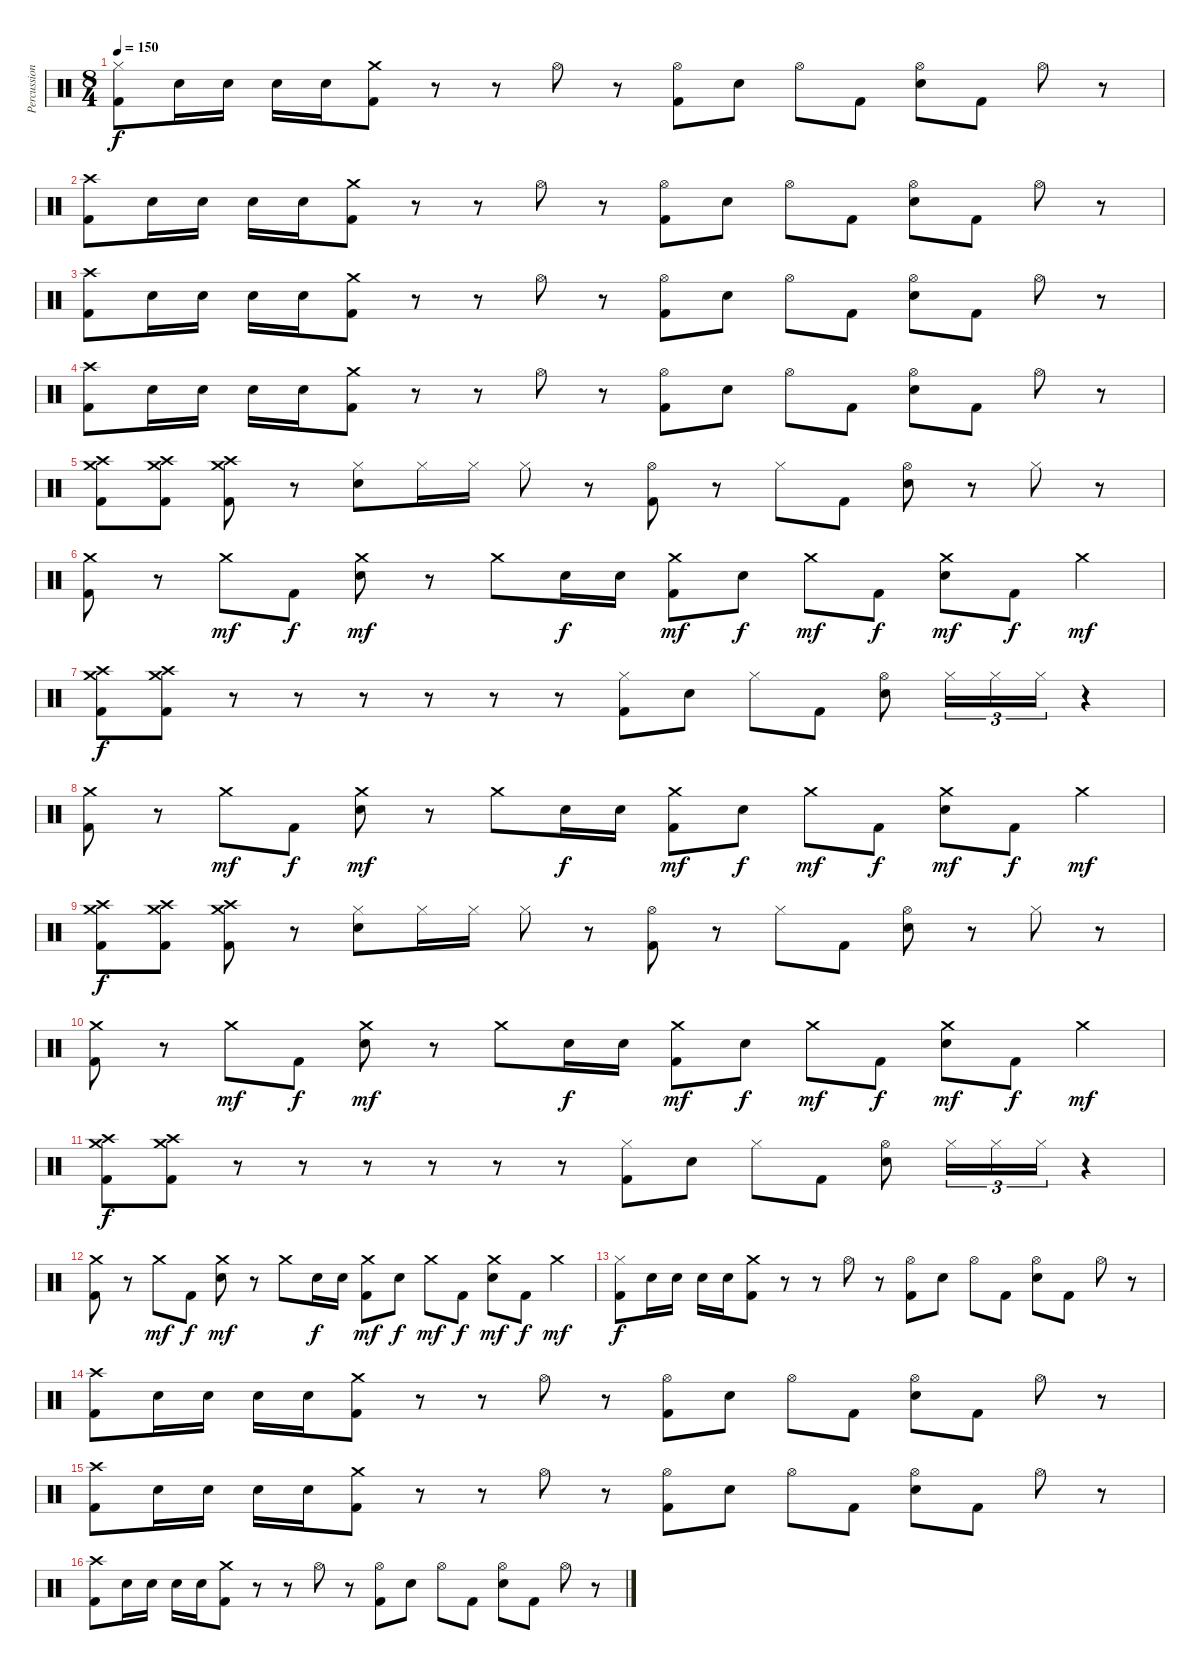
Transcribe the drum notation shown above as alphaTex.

\track ("Percussion" "Percussion") {instrument percussion}
\staff {score}
\articulation defaults
\ts (8 4)
\tempo 150
\clef neutral
\ks c
("Hi-Hat (closed)" "Kick (hit) 2").8{dy f} "Electric Snare (hit)".16 "Electric Snare (hit)".16 "Electric Snare (hit)".16 "Electric Snare (hit)".16 ("Crash medium (hit)" "Kick (hit) 2").8 r.8 r.8 "Hi-Hat (open)".8 r.8 ("Hi-Hat (open)" "Kick (hit) 2").8 "Electric Snare (hit)".8 "Hi-Hat (open)".8 "Kick (hit) 2".8 ("Electric Snare (hit)" "Hi-Hat (open)").8 "Kick (hit) 2".8 "Hi-Hat (open)".8 r.8 |
("Crash high (hit)" "Kick (hit) 2").8 "Electric Snare (hit)".16 "Electric Snare (hit)".16 "Electric Snare (hit)".16 "Electric Snare (hit)".16 ("Crash medium (hit)" "Kick (hit) 2").8 r.8 r.8 "Hi-Hat (open)".8 r.8 ("Hi-Hat (open)" "Kick (hit) 2").8 "Electric Snare (hit)".8 "Hi-Hat (open)".8 "Kick (hit) 2".8 ("Electric Snare (hit)" "Hi-Hat (open)").8 "Kick (hit) 2".8 "Hi-Hat (open)".8 r.8 |
("Crash high (hit)" "Kick (hit) 2").8 "Electric Snare (hit)".16 "Electric Snare (hit)".16 "Electric Snare (hit)".16 "Electric Snare (hit)".16 ("Crash medium (hit)" "Kick (hit) 2").8 r.8 r.8 "Hi-Hat (open)".8 r.8 ("Hi-Hat (open)" "Kick (hit) 2").8 "Electric Snare (hit)".8 "Hi-Hat (open)".8 "Kick (hit) 2".8 ("Electric Snare (hit)" "Hi-Hat (open)").8 "Kick (hit) 2".8 "Hi-Hat (open)".8 r.8 |
("Crash high (hit)" "Kick (hit) 2").8 "Electric Snare (hit)".16 "Electric Snare (hit)".16 "Electric Snare (hit)".16 "Electric Snare (hit)".16 ("Crash medium (hit)" "Kick (hit) 2").8 r.8 r.8 "Hi-Hat (open)".8 r.8 ("Hi-Hat (open)" "Kick (hit) 2").8 "Electric Snare (hit)".8 "Hi-Hat (open)".8 "Kick (hit) 2".8 ("Electric Snare (hit)" "Hi-Hat (open)").8 "Kick (hit) 2".8 "Hi-Hat (open)".8 r.8 |
("Crash high (hit)" "Crash medium (hit)" "Kick (hit) 2").8 ("Crash high (hit)" "Crash medium (hit)" "Kick (hit) 2").8 ("Crash high (hit)" "Crash medium (hit)" "Kick (hit) 2").8 r.8 ("Electric Snare (hit)" "Hi-Hat (closed)").8 "Hi-Hat (closed)".16 "Hi-Hat (closed)".16 "Hi-Hat (closed)".8 r.8 ("Hi-Hat (open)" "Kick (hit) 2").8 r.8 "Hi-Hat (closed)".8 "Kick (hit) 2".8 ("Electric Snare (hit)" "Hi-Hat (open)").8 r.8 "Hi-Hat (closed)".8 r.8 |
("Crash medium (hit)" "Kick (hit) 2").8 r.8 "Crash medium (hit)".8{dy mf} "Kick (hit) 2".8{dy f} ("Electric Snare (hit)" "Crash medium (hit)").8{dy mf} r.8 "Crash medium (hit)".8 "Electric Snare (hit)".16{dy f} "Electric Snare (hit)".16 ("Crash medium (hit)" "Kick (hit) 2").8{dy mf} "Electric Snare (hit)".8{dy f} "Crash medium (hit)".8{dy mf} "Kick (hit) 2".8{dy f} ("Electric Snare (hit)" "Crash medium (hit)").8{dy mf} "Kick (hit) 2".8{dy f} "Crash medium (hit)".4{dy mf} |
("Crash high (hit)" "Crash medium (hit)" "Kick (hit) 2").8{dy f} ("Crash high (hit)" "Crash medium (hit)" "Kick (hit) 2").8 r.8 r.8 r.8 r.8 r.8 r.8 ("Hi-Hat (closed)" "Kick (hit) 2").8 "Electric Snare (hit)".8 "Hi-Hat (closed)".8 "Kick (hit) 2".8 ("Electric Snare (hit)" "Hi-Hat (open)").8 "Hi-Hat (closed)".16{tu (3 2)} "Hi-Hat (closed)".16{tu (3 2)} "Hi-Hat (closed)".16{tu (3 2)} r.4 |
("Crash medium (hit)" "Kick (hit) 2").8 r.8 "Crash medium (hit)".8{dy mf} "Kick (hit) 2".8{dy f} ("Electric Snare (hit)" "Crash medium (hit)").8{dy mf} r.8 "Crash medium (hit)".8 "Electric Snare (hit)".16{dy f} "Electric Snare (hit)".16 ("Crash medium (hit)" "Kick (hit) 2").8{dy mf} "Electric Snare (hit)".8{dy f} "Crash medium (hit)".8{dy mf} "Kick (hit) 2".8{dy f} ("Electric Snare (hit)" "Crash medium (hit)").8{dy mf} "Kick (hit) 2".8{dy f} "Crash medium (hit)".4{dy mf} |
("Crash high (hit)" "Crash medium (hit)" "Kick (hit) 2").8{dy f} ("Crash high (hit)" "Crash medium (hit)" "Kick (hit) 2").8 ("Crash high (hit)" "Crash medium (hit)" "Kick (hit) 2").8 r.8 ("Electric Snare (hit)" "Hi-Hat (closed)").8 "Hi-Hat (closed)".16 "Hi-Hat (closed)".16 "Hi-Hat (closed)".8 r.8 ("Hi-Hat (open)" "Kick (hit) 2").8 r.8 "Hi-Hat (closed)".8 "Kick (hit) 2".8 ("Electric Snare (hit)" "Hi-Hat (open)").8 r.8 "Hi-Hat (closed)".8 r.8 |
("Crash medium (hit)" "Kick (hit) 2").8 r.8 "Crash medium (hit)".8{dy mf} "Kick (hit) 2".8{dy f} ("Electric Snare (hit)" "Crash medium (hit)").8{dy mf} r.8 "Crash medium (hit)".8 "Electric Snare (hit)".16{dy f} "Electric Snare (hit)".16 ("Crash medium (hit)" "Kick (hit) 2").8{dy mf} "Electric Snare (hit)".8{dy f} "Crash medium (hit)".8{dy mf} "Kick (hit) 2".8{dy f} ("Electric Snare (hit)" "Crash medium (hit)").8{dy mf} "Kick (hit) 2".8{dy f} "Crash medium (hit)".4{dy mf} |
("Crash high (hit)" "Crash medium (hit)" "Kick (hit) 2").8{dy f} ("Crash high (hit)" "Crash medium (hit)" "Kick (hit) 2").8 r.8 r.8 r.8 r.8 r.8 r.8 ("Hi-Hat (closed)" "Kick (hit) 2").8 "Electric Snare (hit)".8 "Hi-Hat (closed)".8 "Kick (hit) 2".8 ("Electric Snare (hit)" "Hi-Hat (open)").8 "Hi-Hat (closed)".16{tu (3 2)} "Hi-Hat (closed)".16{tu (3 2)} "Hi-Hat (closed)".16{tu (3 2)} r.4 |
("Crash medium (hit)" "Kick (hit) 2").8 r.8 "Crash medium (hit)".8{dy mf} "Kick (hit) 2".8{dy f} ("Electric Snare (hit)" "Crash medium (hit)").8{dy mf} r.8 "Crash medium (hit)".8 "Electric Snare (hit)".16{dy f} "Electric Snare (hit)".16 ("Crash medium (hit)" "Kick (hit) 2").8{dy mf} "Electric Snare (hit)".8{dy f} "Crash medium (hit)".8{dy mf} "Kick (hit) 2".8{dy f} ("Electric Snare (hit)" "Crash medium (hit)").8{dy mf} "Kick (hit) 2".8{dy f} "Crash medium (hit)".4{dy mf} |
("Hi-Hat (closed)" "Kick (hit) 2").8{dy f} "Electric Snare (hit)".16 "Electric Snare (hit)".16 "Electric Snare (hit)".16 "Electric Snare (hit)".16 ("Crash medium (hit)" "Kick (hit) 2").8 r.8 r.8 "Hi-Hat (open)".8 r.8 ("Hi-Hat (open)" "Kick (hit) 2").8 "Electric Snare (hit)".8 "Hi-Hat (open)".8 "Kick (hit) 2".8 ("Electric Snare (hit)" "Hi-Hat (open)").8 "Kick (hit) 2".8 "Hi-Hat (open)".8 r.8 |
("Crash high (hit)" "Kick (hit) 2").8 "Electric Snare (hit)".16 "Electric Snare (hit)".16 "Electric Snare (hit)".16 "Electric Snare (hit)".16 ("Crash medium (hit)" "Kick (hit) 2").8 r.8 r.8 "Hi-Hat (open)".8 r.8 ("Hi-Hat (open)" "Kick (hit) 2").8 "Electric Snare (hit)".8 "Hi-Hat (open)".8 "Kick (hit) 2".8 ("Electric Snare (hit)" "Hi-Hat (open)").8 "Kick (hit) 2".8 "Hi-Hat (open)".8 r.8 |
("Crash high (hit)" "Kick (hit) 2").8 "Electric Snare (hit)".16 "Electric Snare (hit)".16 "Electric Snare (hit)".16 "Electric Snare (hit)".16 ("Crash medium (hit)" "Kick (hit) 2").8 r.8 r.8 "Hi-Hat (open)".8 r.8 ("Hi-Hat (open)" "Kick (hit) 2").8 "Electric Snare (hit)".8 "Hi-Hat (open)".8 "Kick (hit) 2".8 ("Electric Snare (hit)" "Hi-Hat (open)").8 "Kick (hit) 2".8 "Hi-Hat (open)".8 r.8 |
("Crash high (hit)" "Kick (hit) 2").8 "Electric Snare (hit)".16 "Electric Snare (hit)".16 "Electric Snare (hit)".16 "Electric Snare (hit)".16 ("Crash medium (hit)" "Kick (hit) 2").8 r.8 r.8 "Hi-Hat (open)".8 r.8 ("Hi-Hat (open)" "Kick (hit) 2").8 "Electric Snare (hit)".8 "Hi-Hat (open)".8 "Kick (hit) 2".8 ("Electric Snare (hit)" "Hi-Hat (open)").8 "Kick (hit) 2".8 "Hi-Hat (open)".8 r.8
